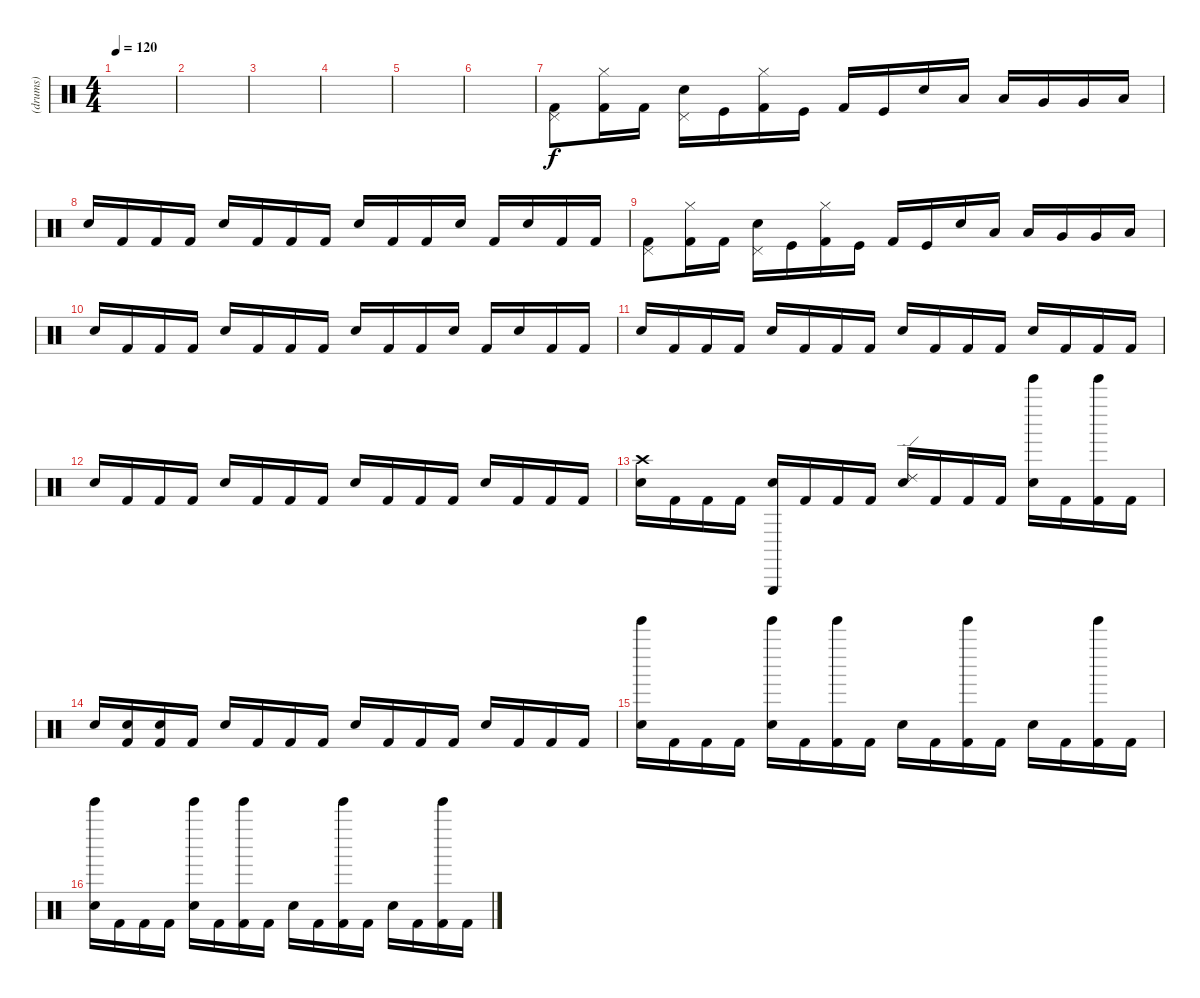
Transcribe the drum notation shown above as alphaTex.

\track ("(drums)" "(drums)") {instrument percussion}
\staff {score}
\articulation defaults
\ts (4 4)
\tempo 120
\clef neutral
\ks c
|
|
|
|
|
|
("Pedal Hi-Hat (hit)" "Kick (hit) 2").8 ("Hi-Hat (closed)" "Kick (hit) 2").16 "Kick (hit) 2".16 ("Pedal Hi-Hat (hit)" "Electric Snare (hit)").16 "Kick (hit)".16 ("Hi-Hat (closed)" "Kick (hit) 2").16 "Kick (hit)".16 "Kick (hit) 2".16 "Kick (hit)".16 "Electric Snare (hit)".16 "Low Tom (hit)".16 "Low Tom (hit)".16 "Very Low Tom (hit)".16 "Very Low Tom (hit)".16 "Low Floor Tom (hit)".16 |
"Electric Snare (hit)".16 "Kick (hit) 2".16 "Kick (hit) 2".16 "Kick (hit) 2".16 "Electric Snare (hit)".16 "Kick (hit) 2".16 "Kick (hit) 2".16 "Kick (hit) 2".16 "Electric Snare (hit)".16 "Kick (hit) 2".16 "Kick (hit) 2".16 "Electric Snare (hit)".16 "Kick (hit) 2".16 "Electric Snare (hit)".16 "Kick (hit) 2".16 "Kick (hit) 2".16 |
("Pedal Hi-Hat (hit)" "Kick (hit) 2").8 ("Hi-Hat (closed)" "Kick (hit) 2").16 "Kick (hit) 2".16 ("Pedal Hi-Hat (hit)" "Electric Snare (hit)").16 "Kick (hit)".16 ("Hi-Hat (closed)" "Kick (hit) 2").16 "Kick (hit)".16 "Kick (hit) 2".16 "Kick (hit)".16 "Electric Snare (hit)".16 "Low Tom (hit)".16 "Low Tom (hit)".16 "Very Low Tom (hit)".16 "Very Low Tom (hit)".16 "Low Floor Tom (hit)".16 |
"Electric Snare (hit)".16 "Kick (hit) 2".16 "Kick (hit) 2".16 "Kick (hit) 2".16 "Electric Snare (hit)".16 "Kick (hit) 2".16 "Kick (hit) 2".16 "Kick (hit) 2".16 "Electric Snare (hit)".16 "Kick (hit) 2".16 "Kick (hit) 2".16 "Electric Snare (hit)".16 "Kick (hit) 2".16 "Electric Snare (hit)".16 "Kick (hit) 2".16 "Kick (hit) 2".16 |
"Electric Snare (hit)".16 "Kick (hit) 2".16 "Kick (hit) 2".16 "Kick (hit) 2".16 "Electric Snare (hit)".16 "Kick (hit) 2".16 "Kick (hit) 2".16 "Kick (hit) 2".16 "Electric Snare (hit)".16 "Kick (hit) 2".16 "Kick (hit) 2".16 "Kick (hit) 2".16 "Electric Snare (hit)".16 "Kick (hit) 2".16 "Kick (hit) 2".16 "Kick (hit) 2".16 |
"Electric Snare (hit)".16 "Kick (hit) 2".16 "Kick (hit) 2".16 "Kick (hit) 2".16 "Electric Snare (hit)".16 "Kick (hit) 2".16 "Kick (hit) 2".16 "Kick (hit) 2".16 "Electric Snare (hit)".16 "Kick (hit) 2".16 "Kick (hit) 2".16 "Kick (hit) 2".16 "Electric Snare (hit)".16 "Kick (hit) 2".16 "Kick (hit) 2".16 "Kick (hit) 2".16 |
("Crash high (hit)" "Electric Snare (hit)").16 "Kick (hit) 2".16 "Kick (hit) 2".16 "Kick (hit) 2".16 ("Triangle (hit)" "Electric Snare (hit)").16 "Kick (hit) 2".16 "Kick (hit) 2".16 "Kick (hit) 2".16 ("Ride (edge) 2" "Electric Snare (hit)").16 "Kick (hit) 2".16 "Kick (hit) 2".16 "Kick (hit) 2".16 ("Tinkle Bell (hit)" "Electric Snare (hit)").16 "Kick (hit) 2".16 ("Tinkle Bell (hit)" "Kick (hit) 2").16 "Kick (hit) 2".16 |
"Electric Snare (hit)".16 ("Electric Snare (hit)" "Kick (hit) 2").16 ("Electric Snare (hit)" "Kick (hit) 2").16 "Kick (hit) 2".16 "Electric Snare (hit)".16 "Kick (hit) 2".16 "Kick (hit) 2".16 "Kick (hit) 2".16 "Electric Snare (hit)".16 "Kick (hit) 2".16 "Kick (hit) 2".16 "Kick (hit) 2".16 "Electric Snare (hit)".16 "Kick (hit) 2".16 "Kick (hit) 2".16 "Kick (hit) 2".16 |
("Tinkle Bell (hit)" "Electric Snare (hit)").16 "Kick (hit) 2".16 "Kick (hit) 2".16 "Kick (hit) 2".16 ("Tinkle Bell (hit)" "Electric Snare (hit)").16 "Kick (hit) 2".16 ("Tinkle Bell (hit)" "Kick (hit) 2").16 "Kick (hit) 2".16 "Electric Snare (hit)".16 "Kick (hit) 2".16 ("Tinkle Bell (hit)" "Kick (hit) 2").16 "Kick (hit) 2".16 "Electric Snare (hit)".16 "Kick (hit) 2".16 ("Tinkle Bell (hit)" "Kick (hit) 2").16 "Kick (hit) 2".16 |
("Tinkle Bell (hit)" "Electric Snare (hit)").16 "Kick (hit) 2".16 "Kick (hit) 2".16 "Kick (hit) 2".16 ("Tinkle Bell (hit)" "Electric Snare (hit)").16 "Kick (hit) 2".16 ("Tinkle Bell (hit)" "Kick (hit) 2").16 "Kick (hit) 2".16 "Electric Snare (hit)".16 "Kick (hit) 2".16 ("Tinkle Bell (hit)" "Kick (hit) 2").16 "Kick (hit) 2".16 "Electric Snare (hit)".16 "Kick (hit) 2".16 ("Tinkle Bell (hit)" "Kick (hit) 2").16 "Kick (hit) 2".16
